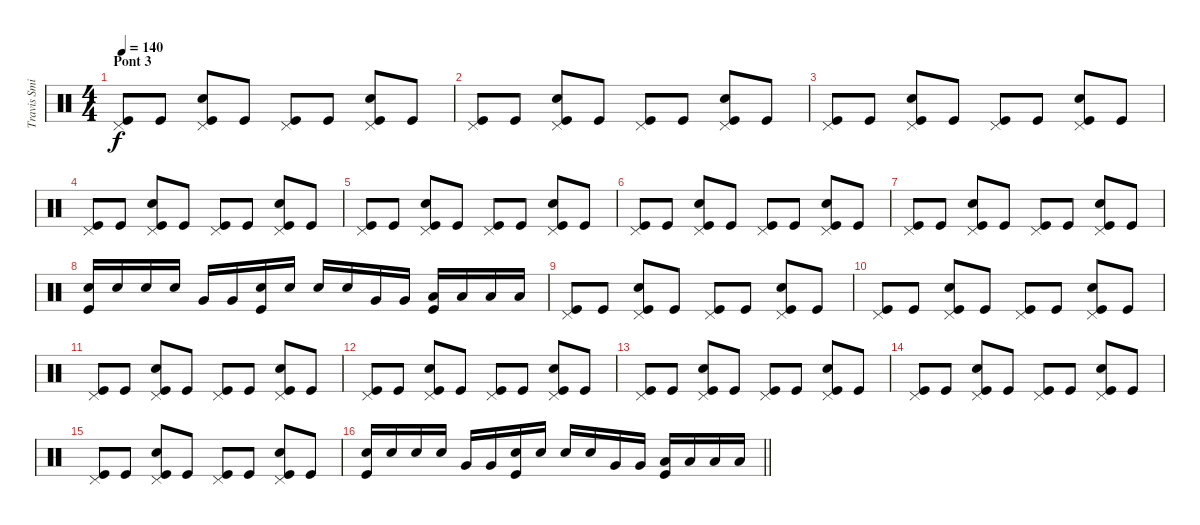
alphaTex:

\track ("Travis Smith" "Travis Smi") {instrument percussion}
\staff {score}
\articulation defaults
\ts (4 4)
\section ("" "Pont 3")
\tempo 140
\clef neutral
\ks c
("Pedal Hi-Hat (hit)" "Kick (hit)").8{dy f} "Kick (hit)".8 ("Pedal Hi-Hat (hit)" "Snare (hit) 2" "Kick (hit)").8 "Kick (hit)".8 ("Pedal Hi-Hat (hit)" "Kick (hit)").8 "Kick (hit)".8 ("Pedal Hi-Hat (hit)" "Snare (hit) 2" "Kick (hit)").8 "Kick (hit)".8 |
("Pedal Hi-Hat (hit)" "Kick (hit)").8 "Kick (hit)".8 ("Pedal Hi-Hat (hit)" "Snare (hit) 2" "Kick (hit)").8 "Kick (hit)".8 ("Pedal Hi-Hat (hit)" "Kick (hit)").8 "Kick (hit)".8 ("Pedal Hi-Hat (hit)" "Snare (hit) 2" "Kick (hit)").8 "Kick (hit)".8 |
("Pedal Hi-Hat (hit)" "Kick (hit)").8 "Kick (hit)".8 ("Pedal Hi-Hat (hit)" "Snare (hit) 2" "Kick (hit)").8 "Kick (hit)".8 ("Pedal Hi-Hat (hit)" "Kick (hit)").8 "Kick (hit)".8 ("Pedal Hi-Hat (hit)" "Snare (hit) 2" "Kick (hit)").8 "Kick (hit)".8 |
("Pedal Hi-Hat (hit)" "Kick (hit)").8 "Kick (hit)".8 ("Pedal Hi-Hat (hit)" "Snare (hit) 2" "Kick (hit)").8 "Kick (hit)".8 ("Pedal Hi-Hat (hit)" "Kick (hit)").8 "Kick (hit)".8 ("Pedal Hi-Hat (hit)" "Snare (hit) 2" "Kick (hit)").8 "Kick (hit)".8 |
("Pedal Hi-Hat (hit)" "Kick (hit)").8 "Kick (hit)".8 ("Pedal Hi-Hat (hit)" "Snare (hit) 2" "Kick (hit)").8 "Kick (hit)".8 ("Pedal Hi-Hat (hit)" "Kick (hit)").8 "Kick (hit)".8 ("Pedal Hi-Hat (hit)" "Snare (hit) 2" "Kick (hit)").8 "Kick (hit)".8 |
("Pedal Hi-Hat (hit)" "Kick (hit)").8 "Kick (hit)".8 ("Pedal Hi-Hat (hit)" "Snare (hit) 2" "Kick (hit)").8 "Kick (hit)".8 ("Pedal Hi-Hat (hit)" "Kick (hit)").8 "Kick (hit)".8 ("Pedal Hi-Hat (hit)" "Snare (hit) 2" "Kick (hit)").8 "Kick (hit)".8 |
("Pedal Hi-Hat (hit)" "Kick (hit)").8 "Kick (hit)".8 ("Pedal Hi-Hat (hit)" "Snare (hit) 2" "Kick (hit)").8 "Kick (hit)".8 ("Pedal Hi-Hat (hit)" "Kick (hit)").8 "Kick (hit)".8 ("Pedal Hi-Hat (hit)" "Snare (hit) 2" "Kick (hit)").8 "Kick (hit)".8 |
("Snare (hit) 2" "Kick (hit)").16 "Snare (hit) 2".16 "Snare (hit) 2".16 "Snare (hit) 2".16 "Very Low Tom (hit)".16 "Very Low Tom (hit)".16 ("Snare (hit) 2" "Kick (hit)").16 "Snare (hit) 2".16 "Snare (hit) 2".16 "Snare (hit) 2".16 "Very Low Tom (hit)".16 "Very Low Tom (hit)".16 ("Low Floor Tom (hit)" "Kick (hit)").16 "Low Floor Tom (hit)".16 "Low Floor Tom (hit)".16 "Low Floor Tom (hit)".16 |
("Pedal Hi-Hat (hit)" "Kick (hit)").8 "Kick (hit)".8 ("Pedal Hi-Hat (hit)" "Snare (hit) 2" "Kick (hit)").8 "Kick (hit)".8 ("Pedal Hi-Hat (hit)" "Kick (hit)").8 "Kick (hit)".8 ("Pedal Hi-Hat (hit)" "Snare (hit) 2" "Kick (hit)").8 "Kick (hit)".8 |
("Pedal Hi-Hat (hit)" "Kick (hit)").8 "Kick (hit)".8 ("Pedal Hi-Hat (hit)" "Snare (hit) 2" "Kick (hit)").8 "Kick (hit)".8 ("Pedal Hi-Hat (hit)" "Kick (hit)").8 "Kick (hit)".8 ("Pedal Hi-Hat (hit)" "Snare (hit) 2" "Kick (hit)").8 "Kick (hit)".8 |
("Pedal Hi-Hat (hit)" "Kick (hit)").8 "Kick (hit)".8 ("Pedal Hi-Hat (hit)" "Snare (hit) 2" "Kick (hit)").8 "Kick (hit)".8 ("Pedal Hi-Hat (hit)" "Kick (hit)").8 "Kick (hit)".8 ("Pedal Hi-Hat (hit)" "Snare (hit) 2" "Kick (hit)").8 "Kick (hit)".8 |
("Pedal Hi-Hat (hit)" "Kick (hit)").8 "Kick (hit)".8 ("Pedal Hi-Hat (hit)" "Snare (hit) 2" "Kick (hit)").8 "Kick (hit)".8 ("Pedal Hi-Hat (hit)" "Kick (hit)").8 "Kick (hit)".8 ("Pedal Hi-Hat (hit)" "Snare (hit) 2" "Kick (hit)").8 "Kick (hit)".8 |
("Pedal Hi-Hat (hit)" "Kick (hit)").8 "Kick (hit)".8 ("Pedal Hi-Hat (hit)" "Snare (hit) 2" "Kick (hit)").8 "Kick (hit)".8 ("Pedal Hi-Hat (hit)" "Kick (hit)").8 "Kick (hit)".8 ("Pedal Hi-Hat (hit)" "Snare (hit) 2" "Kick (hit)").8 "Kick (hit)".8 |
("Pedal Hi-Hat (hit)" "Kick (hit)").8 "Kick (hit)".8 ("Pedal Hi-Hat (hit)" "Snare (hit) 2" "Kick (hit)").8 "Kick (hit)".8 ("Pedal Hi-Hat (hit)" "Kick (hit)").8 "Kick (hit)".8 ("Pedal Hi-Hat (hit)" "Snare (hit) 2" "Kick (hit)").8 "Kick (hit)".8 |
("Pedal Hi-Hat (hit)" "Kick (hit)").8 "Kick (hit)".8 ("Pedal Hi-Hat (hit)" "Snare (hit) 2" "Kick (hit)").8 "Kick (hit)".8 ("Pedal Hi-Hat (hit)" "Kick (hit)").8 "Kick (hit)".8 ("Pedal Hi-Hat (hit)" "Snare (hit) 2" "Kick (hit)").8 "Kick (hit)".8 |
\barLineRight lightlight
("Snare (hit) 2" "Kick (hit)").16 "Snare (hit) 2".16 "Snare (hit) 2".16 "Snare (hit) 2".16 "Very Low Tom (hit)".16 "Very Low Tom (hit)".16 ("Snare (hit) 2" "Kick (hit)").16 "Snare (hit) 2".16 "Snare (hit) 2".16 "Snare (hit) 2".16 "Very Low Tom (hit)".16 "Very Low Tom (hit)".16 ("Low Floor Tom (hit)" "Kick (hit)").16 "Low Floor Tom (hit)".16 "Low Floor Tom (hit)".16 "Low Floor Tom (hit)".16
